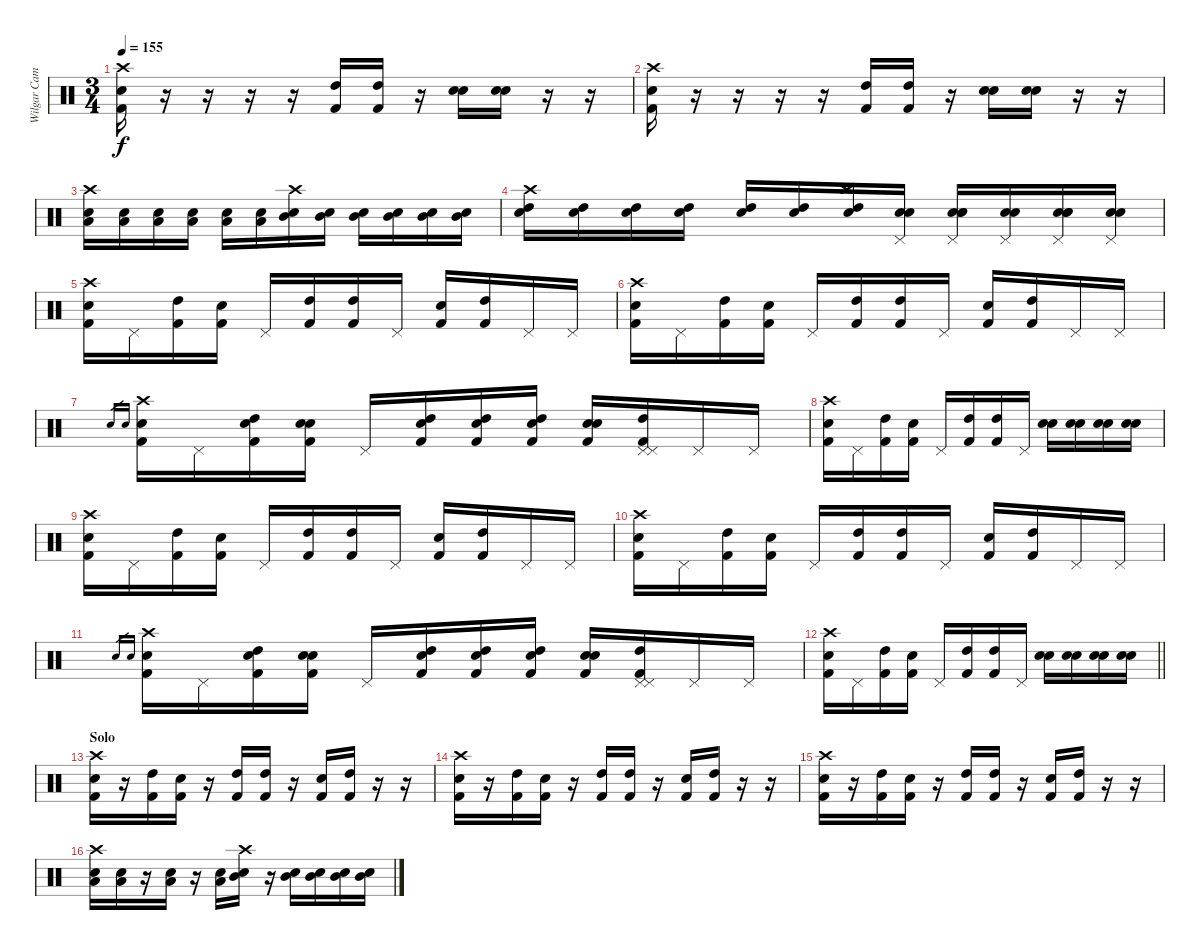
\track ("Wilgar Campbell" "Wilgar Cam") {instrument percussion}
\staff {score}
\articulation defaults
\ts (3 4)
\tempo 155
\clef neutral
\ks c
("Kick (hit) 2" "Snare (hit) 2" "Crash high (hit)").16{dy f} r.16 r.16 r.16 r.16 ("High Tom (hit)" "Kick (hit) 2").16 ("High Tom (hit)" "Kick (hit) 2").16 r.16 ("Electric Snare (hit)" "Electric Snare (hit)").16 ("Electric Snare (hit)" "Electric Snare (hit)").16 r.16 r.16 |
("Kick (hit) 2" "Snare (hit) 2" "Crash high (hit)").16 r.16 r.16 r.16 r.16 ("High Tom (hit)" "Kick (hit) 2").16 ("High Tom (hit)" "Kick (hit) 2").16 r.16 ("Electric Snare (hit)" "Electric Snare (hit)").16 ("Electric Snare (hit)" "Electric Snare (hit)").16 r.16 r.16 |
("Crash high (hit)" "Low Tom (hit)" "Snare (hit) 2").16 ("Low Tom (hit)" "Snare (hit) 2").16 ("Low Tom (hit)" "Snare (hit) 2").16 ("Low Tom (hit)" "Snare (hit) 2").16 ("Low Tom (hit)" "Snare (hit) 2").16 ("Low Tom (hit)" "Snare (hit) 2").16 ("Crash high (hit)" "Mid Tom (hit)" "Snare (hit) 2").16 ("Mid Tom (hit)" "Snare (hit) 2").16 ("Mid Tom (hit)" "Snare (hit) 2").16 ("Mid Tom (hit)" "Snare (hit) 2").16 ("Mid Tom (hit)" "Snare (hit) 2").16 ("Mid Tom (hit)" "Snare (hit) 2").16 |
("Crash high (hit)" "High Tom (hit)" "Snare (hit) 2").16 ("High Tom (hit)" "Snare (hit) 2").16 ("High Tom (hit)" "Snare (hit) 2").16 ("High Tom (hit)" "Snare (hit) 2").16 ("High Tom (hit)" "Snare (hit) 2").16 ("High Tom (hit)" "Snare (hit) 2").16 ("Crash high (hit)" "High Tom (hit)" "Snare (hit) 2").16 ("Electric Snare (hit)" "Electric Snare (hit)" "Pedal Hi-Hat (hit)").16 ("Electric Snare (hit)" "Electric Snare (hit)" "Snare (hit) 2" "Pedal Hi-Hat (hit)").16 ("Electric Snare (hit)" "Electric Snare (hit)" "Pedal Hi-Hat (hit)").16 ("Electric Snare (hit)" "Electric Snare (hit)" "Snare (hit) 2" "Pedal Hi-Hat (hit)").16 ("Electric Snare (hit)" "Electric Snare (hit)" "Pedal Hi-Hat (hit)").16 |
("Kick (hit) 2" "Snare (hit) 2" "Crash high (hit)").16 "Pedal Hi-Hat (hit)".16 ("Kick (hit) 2" "High Tom (hit)").16 ("Kick (hit) 2" "Snare (hit) 2").16 "Pedal Hi-Hat (hit)".16 ("High Tom (hit)" "Kick (hit) 2").16 ("High Tom (hit)" "Kick (hit) 2").16 "Pedal Hi-Hat (hit)".16 ("Electric Snare (hit)" "Kick (hit) 2").16 ("High Tom (hit)" "Kick (hit) 2").16 "Pedal Hi-Hat (hit)".16 "Pedal Hi-Hat (hit)".16 |
("Kick (hit) 2" "Snare (hit) 2" "Crash high (hit)").16 "Pedal Hi-Hat (hit)".16 ("Kick (hit) 2" "High Tom (hit)").16 ("Kick (hit) 2" "Snare (hit) 2").16 "Pedal Hi-Hat (hit)".16 ("High Tom (hit)" "Kick (hit) 2").16 ("High Tom (hit)" "Kick (hit) 2").16 "Pedal Hi-Hat (hit)".16 ("Electric Snare (hit)" "Kick (hit) 2").16 ("High Tom (hit)" "Kick (hit) 2").16 "Pedal Hi-Hat (hit)".16 "Pedal Hi-Hat (hit)".16 |
"Electric Snare (hit)".16{gr} "Electric Snare (hit)".16{gr} ("Kick (hit) 2" "Snare (hit) 2" "Crash high (hit)").16 "Pedal Hi-Hat (hit)".16 ("Electric Snare (hit)" "Kick (hit) 2" "High Tom (hit)").16 ("Electric Snare (hit)" "Kick (hit) 2" "Snare (hit) 2").16 "Pedal Hi-Hat (hit)".16 ("Electric Snare (hit)" "High Tom (hit)" "Kick (hit) 2").16 ("Electric Snare (hit)" "High Tom (hit)" "Kick (hit) 2").16 ("Electric Snare (hit)" "High Tom (hit)" "Kick (hit) 2").16 ("Electric Snare (hit)" "Electric Snare (hit)" "Kick (hit) 2").16 ("Kick (hit) 2" "Pedal Hi-Hat (hit)" "High Tom (hit)" "Pedal Hi-Hat (hit)").16 "Pedal Hi-Hat (hit)".16 "Pedal Hi-Hat (hit)".16 |
("Kick (hit) 2" "Snare (hit) 2" "Crash high (hit)").16 "Pedal Hi-Hat (hit)".16 ("Kick (hit) 2" "High Tom (hit)").16 ("Kick (hit) 2" "Snare (hit) 2").16 "Pedal Hi-Hat (hit)".16 ("High Tom (hit)" "Kick (hit) 2").16 ("High Tom (hit)" "Kick (hit) 2").16 "Pedal Hi-Hat (hit)".16 ("Electric Snare (hit)" "Electric Snare (hit)").16 ("Electric Snare (hit)" "Electric Snare (hit)").16 ("Electric Snare (hit)" "Electric Snare (hit)").16 ("Electric Snare (hit)" "Electric Snare (hit)").16 |
("Kick (hit) 2" "Snare (hit) 2" "Crash high (hit)").16 "Pedal Hi-Hat (hit)".16 ("Kick (hit) 2" "High Tom (hit)").16 ("Kick (hit) 2" "Snare (hit) 2").16 "Pedal Hi-Hat (hit)".16 ("High Tom (hit)" "Kick (hit) 2").16 ("High Tom (hit)" "Kick (hit) 2").16 "Pedal Hi-Hat (hit)".16 ("Electric Snare (hit)" "Kick (hit) 2").16 ("High Tom (hit)" "Kick (hit) 2").16 "Pedal Hi-Hat (hit)".16 "Pedal Hi-Hat (hit)".16 |
("Kick (hit) 2" "Snare (hit) 2" "Crash high (hit)").16 "Pedal Hi-Hat (hit)".16 ("Kick (hit) 2" "High Tom (hit)").16 ("Kick (hit) 2" "Snare (hit) 2").16 "Pedal Hi-Hat (hit)".16 ("High Tom (hit)" "Kick (hit) 2").16 ("High Tom (hit)" "Kick (hit) 2").16 "Pedal Hi-Hat (hit)".16 ("Electric Snare (hit)" "Kick (hit) 2").16 ("High Tom (hit)" "Kick (hit) 2").16 "Pedal Hi-Hat (hit)".16 "Pedal Hi-Hat (hit)".16 |
"Electric Snare (hit)".16{gr} "Electric Snare (hit)".16{gr} ("Kick (hit) 2" "Snare (hit) 2" "Crash high (hit)").16 "Pedal Hi-Hat (hit)".16 ("Electric Snare (hit)" "Kick (hit) 2" "High Tom (hit)").16 ("Electric Snare (hit)" "Kick (hit) 2" "Snare (hit) 2").16 "Pedal Hi-Hat (hit)".16 ("Electric Snare (hit)" "High Tom (hit)" "Kick (hit) 2").16 ("Electric Snare (hit)" "High Tom (hit)" "Kick (hit) 2").16 ("Electric Snare (hit)" "High Tom (hit)" "Kick (hit) 2").16 ("Electric Snare (hit)" "Electric Snare (hit)" "Kick (hit) 2").16 ("Kick (hit) 2" "Pedal Hi-Hat (hit)" "High Tom (hit)" "Pedal Hi-Hat (hit)").16 "Pedal Hi-Hat (hit)".16 "Pedal Hi-Hat (hit)".16 |
\barLineRight lightlight
("Kick (hit) 2" "Snare (hit) 2" "Crash high (hit)").16 "Pedal Hi-Hat (hit)".16 ("Kick (hit) 2" "High Tom (hit)").16 ("Kick (hit) 2" "Snare (hit) 2").16 "Pedal Hi-Hat (hit)".16 ("High Tom (hit)" "Kick (hit) 2").16 ("High Tom (hit)" "Kick (hit) 2").16 "Pedal Hi-Hat (hit)".16 ("Electric Snare (hit)" "Electric Snare (hit)").16 ("Electric Snare (hit)" "Electric Snare (hit)").16 ("Electric Snare (hit)" "Electric Snare (hit)").16 ("Electric Snare (hit)" "Electric Snare (hit)").16 |
\section ("" "Solo")
("Kick (hit) 2" "Snare (hit) 2" "Crash high (hit)").16 r.16 ("Kick (hit) 2" "High Tom (hit)").16 ("Kick (hit) 2" "Snare (hit) 2").16 r.16 ("High Tom (hit)" "Kick (hit) 2").16 ("High Tom (hit)" "Kick (hit) 2").16 r.16 ("Electric Snare (hit)" "Kick (hit) 2").16 ("High Tom (hit)" "Kick (hit) 2").16 r.16 r.16 |
("Kick (hit) 2" "Snare (hit) 2" "Crash high (hit)").16 r.16 ("Kick (hit) 2" "High Tom (hit)").16 ("Kick (hit) 2" "Snare (hit) 2").16 r.16 ("High Tom (hit)" "Kick (hit) 2").16 ("High Tom (hit)" "Kick (hit) 2").16 r.16 ("Electric Snare (hit)" "Kick (hit) 2").16 ("High Tom (hit)" "Kick (hit) 2").16 r.16 r.16 |
("Kick (hit) 2" "Snare (hit) 2" "Crash high (hit)").16 r.16 ("Kick (hit) 2" "High Tom (hit)").16 ("Kick (hit) 2" "Snare (hit) 2").16 r.16 ("High Tom (hit)" "Kick (hit) 2").16 ("High Tom (hit)" "Kick (hit) 2").16 r.16 ("Electric Snare (hit)" "Kick (hit) 2").16 ("High Tom (hit)" "Kick (hit) 2").16 r.16 r.16 |
("Crash high (hit)" "Low Tom (hit)" "Snare (hit) 2").16 ("Low Tom (hit)" "Snare (hit) 2").16 r.16 ("Low Tom (hit)" "Snare (hit) 2").16 r.16 ("Low Tom (hit)" "Snare (hit) 2").16 ("Crash high (hit)" "Mid Tom (hit)" "Snare (hit) 2").16 r.16 ("Mid Tom (hit)" "Snare (hit) 2").16 ("Mid Tom (hit)" "Snare (hit) 2").16 ("Mid Tom (hit)" "Snare (hit) 2").16 ("Mid Tom (hit)" "Snare (hit) 2").16
